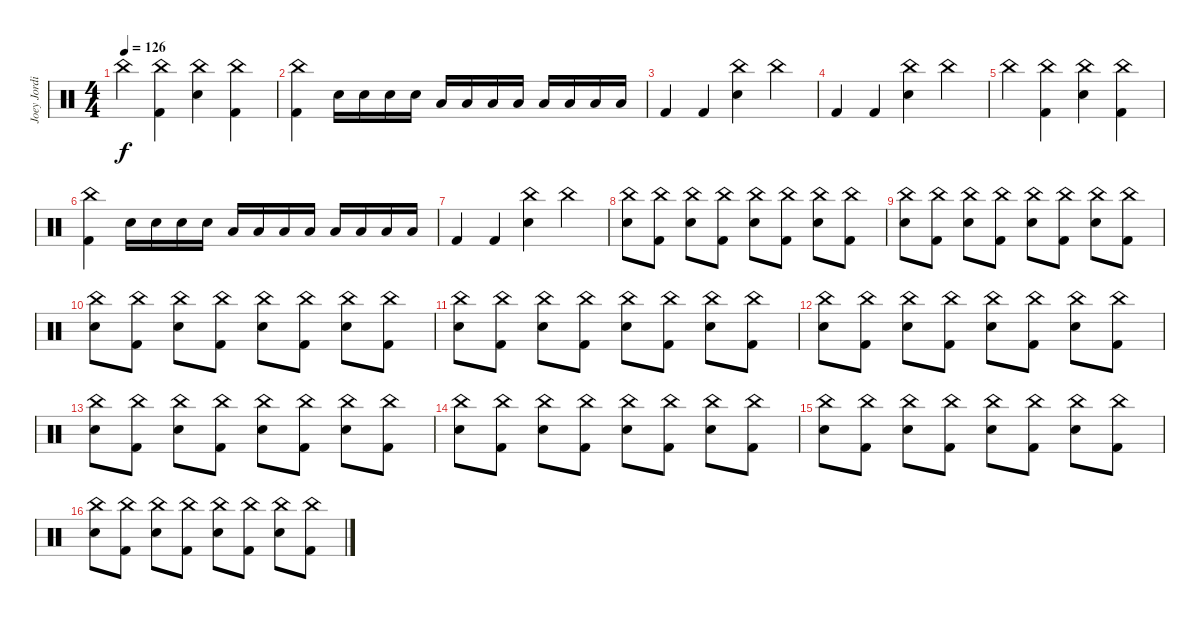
\track ("Joey Jordison" "Joey Jordi") {instrument percussion}
\staff {score}
\articulation defaults
\ts (4 4)
\tempo 126
\clef neutral
\ks c "China (hit)".4{dy f}
("China (hit)" "Kick (hit) 2").4 ("China (hit)" "Snare (hit) 2").4 ("China (hit)" "Kick (hit) 2").4 |
("China (hit)" "Kick (hit) 2").4 "Snare (hit) 2".16 "Snare (hit) 2".16 "Snare (hit) 2".16 "Snare (hit) 2".16 "Low Tom (hit)".16 "Low Tom (hit)".16 "Low Tom (hit)".16 "Low Tom (hit)".16 "Low Tom (hit)".16 "Low Tom (hit)".16 "Low Tom (hit)".16 "Low Tom (hit)".16 |
"Kick (hit) 2".4 "Kick (hit) 2".4 ("China (hit)" "Snare (hit) 2").4 "China (hit)".4 |
"Kick (hit) 2".4 "Kick (hit) 2".4 ("China (hit)" "Snare (hit) 2").4 "China (hit)".4 |
"China (hit)".4 ("China (hit)" "Kick (hit) 2").4 ("China (hit)" "Snare (hit) 2").4 ("China (hit)" "Kick (hit) 2").4 |
("China (hit)" "Kick (hit) 2").4 "Snare (hit) 2".16 "Snare (hit) 2".16 "Snare (hit) 2".16 "Snare (hit) 2".16 "Low Tom (hit)".16 "Low Tom (hit)".16 "Low Tom (hit)".16 "Low Tom (hit)".16 "Low Tom (hit)".16 "Low Tom (hit)".16 "Low Tom (hit)".16 "Low Tom (hit)".16 |
"Kick (hit) 2".4 "Kick (hit) 2".4 ("China (hit)" "Snare (hit) 2").4 "China (hit)".4 |
("China (hit)" "Snare (hit) 2").8 ("China (hit)" "Kick (hit) 2").8 ("China (hit)" "Snare (hit) 2").8 ("China (hit)" "Kick (hit) 2").8 ("China (hit)" "Snare (hit) 2").8 ("China (hit)" "Kick (hit) 2").8 ("China (hit)" "Snare (hit) 2").8 ("China (hit)" "Kick (hit) 2").8 |
("China (hit)" "Snare (hit) 2").8 ("China (hit)" "Kick (hit) 2").8 ("China (hit)" "Snare (hit) 2").8 ("China (hit)" "Kick (hit) 2").8 ("China (hit)" "Snare (hit) 2").8 ("China (hit)" "Kick (hit) 2").8 ("China (hit)" "Snare (hit) 2").8 ("China (hit)" "Kick (hit) 2").8 |
("China (hit)" "Snare (hit) 2").8 ("China (hit)" "Kick (hit) 2").8 ("China (hit)" "Snare (hit) 2").8 ("China (hit)" "Kick (hit) 2").8 ("China (hit)" "Snare (hit) 2").8 ("China (hit)" "Kick (hit) 2").8 ("China (hit)" "Snare (hit) 2").8 ("China (hit)" "Kick (hit) 2").8 |
("China (hit)" "Snare (hit) 2").8 ("China (hit)" "Kick (hit) 2").8 ("China (hit)" "Snare (hit) 2").8 ("China (hit)" "Kick (hit) 2").8 ("China (hit)" "Snare (hit) 2").8 ("China (hit)" "Kick (hit) 2").8 ("China (hit)" "Snare (hit) 2").8 ("China (hit)" "Kick (hit) 2").8 |
("China (hit)" "Snare (hit) 2").8 ("China (hit)" "Kick (hit) 2").8 ("China (hit)" "Snare (hit) 2").8 ("China (hit)" "Kick (hit) 2").8 ("China (hit)" "Snare (hit) 2").8 ("China (hit)" "Kick (hit) 2").8 ("China (hit)" "Snare (hit) 2").8 ("China (hit)" "Kick (hit) 2").8 |
("China (hit)" "Snare (hit) 2").8 ("China (hit)" "Kick (hit) 2").8 ("China (hit)" "Snare (hit) 2").8 ("China (hit)" "Kick (hit) 2").8 ("China (hit)" "Snare (hit) 2").8 ("China (hit)" "Kick (hit) 2").8 ("China (hit)" "Snare (hit) 2").8 ("China (hit)" "Kick (hit) 2").8 |
("China (hit)" "Snare (hit) 2").8 ("China (hit)" "Kick (hit) 2").8 ("China (hit)" "Snare (hit) 2").8 ("China (hit)" "Kick (hit) 2").8 ("China (hit)" "Snare (hit) 2").8 ("China (hit)" "Kick (hit) 2").8 ("China (hit)" "Snare (hit) 2").8 ("China (hit)" "Kick (hit) 2").8 |
("China (hit)" "Snare (hit) 2").8 ("China (hit)" "Kick (hit) 2").8 ("China (hit)" "Snare (hit) 2").8 ("China (hit)" "Kick (hit) 2").8 ("China (hit)" "Snare (hit) 2").8 ("China (hit)" "Kick (hit) 2").8 ("China (hit)" "Snare (hit) 2").8 ("China (hit)" "Kick (hit) 2").8 |
("China (hit)" "Snare (hit) 2").8 ("China (hit)" "Kick (hit) 2").8 ("China (hit)" "Snare (hit) 2").8 ("China (hit)" "Kick (hit) 2").8 ("China (hit)" "Snare (hit) 2").8 ("China (hit)" "Kick (hit) 2").8 ("China (hit)" "Snare (hit) 2").8 ("China (hit)" "Kick (hit) 2").8
